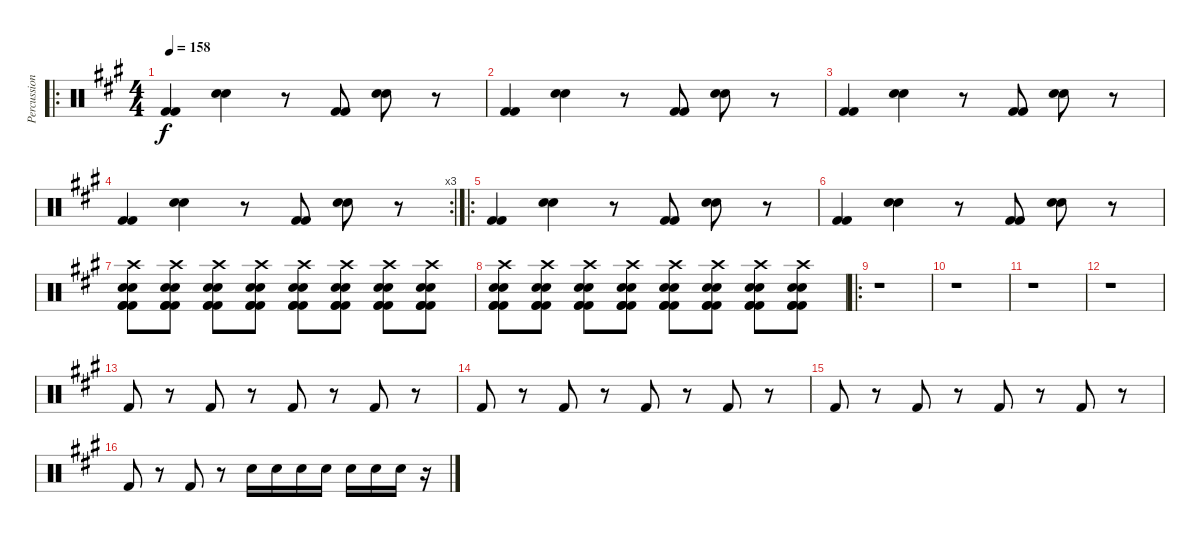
\track ("Percussion" "Percussion") {instrument percussion}
\staff {score}
\articulation defaults
\ro
\ts (4 4)
\tempo 158
\clef neutral
\ks a
("Kick (hit) 2" "Kick (hit) 2").4{dy f} ("Snare (hit) 2" "Snare (hit) 2").4 r.8 ("Kick (hit) 2" "Kick (hit) 2").8 ("Snare (hit) 2" "Snare (hit) 2").8 r.8 |
("Kick (hit) 2" "Kick (hit) 2").4 ("Snare (hit) 2" "Snare (hit) 2").4 r.8 ("Kick (hit) 2" "Kick (hit) 2").8 ("Snare (hit) 2" "Snare (hit) 2").8 r.8 |
("Kick (hit) 2" "Kick (hit) 2").4 ("Snare (hit) 2" "Snare (hit) 2").4 r.8 ("Kick (hit) 2" "Kick (hit) 2").8 ("Snare (hit) 2" "Snare (hit) 2").8 r.8 |
\rc 3
("Kick (hit) 2" "Kick (hit) 2").4 ("Snare (hit) 2" "Snare (hit) 2").4 r.8 ("Kick (hit) 2" "Kick (hit) 2").8 ("Snare (hit) 2" "Snare (hit) 2").8 r.8 |
\ro
("Kick (hit) 2" "Kick (hit) 2").4 ("Snare (hit) 2" "Snare (hit) 2").4 r.8 ("Kick (hit) 2" "Kick (hit) 2").8 ("Snare (hit) 2" "Snare (hit) 2").8 r.8 |
("Kick (hit) 2" "Kick (hit) 2").4 ("Snare (hit) 2" "Snare (hit) 2").4 r.8 ("Kick (hit) 2" "Kick (hit) 2").8 ("Snare (hit) 2" "Snare (hit) 2").8 r.8 |
("Crash high (hit)" "Kick (hit) 2" "Snare (hit) 2" "Snare (hit) 2" "Kick (hit) 2" "Kick (hit) 2").8 ("Crash high (hit)" "Kick (hit) 2" "Snare (hit) 2" "Snare (hit) 2" "Kick (hit) 2" "Kick (hit) 2").8 ("Crash high (hit)" "Kick (hit) 2" "Snare (hit) 2" "Snare (hit) 2" "Kick (hit) 2" "Kick (hit) 2").8 ("Crash high (hit)" "Kick (hit) 2" "Snare (hit) 2" "Snare (hit) 2" "Kick (hit) 2" "Kick (hit) 2").8 ("Crash high (hit)" "Kick (hit) 2" "Snare (hit) 2" "Snare (hit) 2" "Kick (hit) 2" "Kick (hit) 2").8 ("Crash high (hit)" "Kick (hit) 2" "Snare (hit) 2" "Snare (hit) 2" "Kick (hit) 2" "Kick (hit) 2").8 ("Crash high (hit)" "Kick (hit) 2" "Snare (hit) 2" "Snare (hit) 2" "Kick (hit) 2" "Kick (hit) 2").8 ("Crash high (hit)" "Kick (hit) 2" "Snare (hit) 2" "Snare (hit) 2" "Kick (hit) 2" "Kick (hit) 2").8 |
("Crash high (hit)" "Kick (hit) 2" "Snare (hit) 2" "Snare (hit) 2" "Kick (hit) 2" "Kick (hit) 2").8 ("Crash high (hit)" "Kick (hit) 2" "Snare (hit) 2" "Snare (hit) 2" "Kick (hit) 2" "Kick (hit) 2").8 ("Crash high (hit)" "Kick (hit) 2" "Snare (hit) 2" "Snare (hit) 2" "Kick (hit) 2" "Kick (hit) 2").8 ("Crash high (hit)" "Kick (hit) 2" "Snare (hit) 2" "Snare (hit) 2" "Kick (hit) 2" "Kick (hit) 2").8 ("Crash high (hit)" "Kick (hit) 2" "Snare (hit) 2" "Snare (hit) 2" "Kick (hit) 2" "Kick (hit) 2").8 ("Crash high (hit)" "Kick (hit) 2" "Snare (hit) 2" "Snare (hit) 2" "Kick (hit) 2" "Kick (hit) 2").8 ("Crash high (hit)" "Kick (hit) 2" "Snare (hit) 2" "Snare (hit) 2" "Kick (hit) 2" "Kick (hit) 2").8 ("Crash high (hit)" "Kick (hit) 2" "Snare (hit) 2" "Snare (hit) 2" "Kick (hit) 2" "Kick (hit) 2").8 |
\ro
r.1 |
r.1 |
r.1 |
r.1 |
"Kick (hit) 2".8 r.8 "Kick (hit) 2".8 r.8 "Kick (hit) 2".8 r.8 "Kick (hit) 2".8 r.8 |
"Kick (hit) 2".8 r.8 "Kick (hit) 2".8 r.8 "Kick (hit) 2".8 r.8 "Kick (hit) 2".8 r.8 |
"Kick (hit) 2".8 r.8 "Kick (hit) 2".8 r.8 "Kick (hit) 2".8 r.8 "Kick (hit) 2".8 r.8 |
"Kick (hit) 2".8 r.8 "Kick (hit) 2".8 r.8 "Snare (hit) 2".16 "Snare (hit) 2".16 "Snare (hit) 2".16 "Snare (hit) 2".16 "Snare (hit) 2".16 "Snare (hit) 2".16 "Snare (hit) 2".16 r.16
